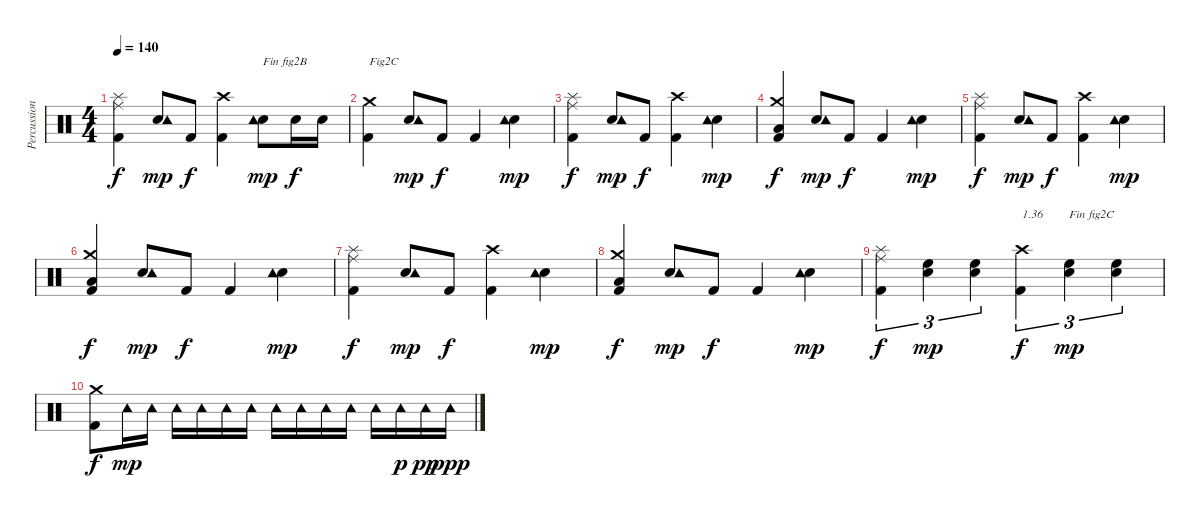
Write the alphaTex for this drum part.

\track ("Percussions" "Percussion") {instrument percussion}
\staff {score}
\articulation defaults
\ts (4 4)
\tempo 140
\clef neutral
\ks c
("Kick (hit) 2" "Ride (middle)" "Splash (hit)").4{dy f} ("Electric Snare (hit)" "Tambourine (hit)").8{dy mp} "Kick (hit) 2".8{dy f} ("Kick (hit) 2" "Crash high (hit)").4 ("Electric Snare (hit)" "Tambourine (hit)").8{txt "Fin fig2B" dy mp} "Electric Snare (hit)".16{dy f} "Electric Snare (hit)".16 |
("Kick (hit) 2" "Crash medium (hit)").4{txt "Fig2C"} ("Electric Snare (hit)" "Tambourine (hit)").8{dy mp} "Kick (hit) 2".8{dy f} "Kick (hit) 2".4 ("Electric Snare (hit)" "Tambourine (hit)").4{dy mp} |
("Kick (hit) 2" "Ride (middle)" "Splash (hit)").4{dy f} ("Electric Snare (hit)" "Tambourine (hit)").8{dy mp} "Kick (hit) 2".8{dy f} ("Kick (hit) 2" "Crash high (hit)").4 ("Electric Snare (hit)" "Tambourine (hit)").4{dy mp} |
("Kick (hit) 2" "Low Tom (hit)" "Crash medium (hit)").4{dy f} ("Electric Snare (hit)" "Tambourine (hit)").8{dy mp} "Kick (hit) 2".8{dy f} "Kick (hit) 2".4 ("Electric Snare (hit)" "Tambourine (hit)").4{dy mp} |
("Kick (hit) 2" "Ride (middle)" "Splash (hit)").4{dy f} ("Electric Snare (hit)" "Tambourine (hit)").8{dy mp} "Kick (hit) 2".8{dy f} ("Kick (hit) 2" "Crash high (hit)").4 ("Electric Snare (hit)" "Tambourine (hit)").4{dy mp} |
("Kick (hit) 2" "Low Tom (hit)" "Crash medium (hit)").4{dy f} ("Electric Snare (hit)" "Tambourine (hit)").8{dy mp} "Kick (hit) 2".8{dy f} "Kick (hit) 2".4 ("Electric Snare (hit)" "Tambourine (hit)").4{dy mp} |
("Kick (hit) 2" "Ride (middle)" "Splash (hit)").4{dy f} ("Electric Snare (hit)" "Tambourine (hit)").8{dy mp} "Kick (hit) 2".8{dy f} ("Kick (hit) 2" "Crash high (hit)").4 ("Electric Snare (hit)" "Tambourine (hit)").4{dy mp} |
("Kick (hit) 2" "Low Tom (hit)" "Crash medium (hit)").4{dy f} ("Electric Snare (hit)" "Tambourine (hit)").8{dy mp} "Kick (hit) 2".8{dy f} "Kick (hit) 2".4 ("Electric Snare (hit)" "Tambourine (hit)").4{dy mp} |
("Kick (hit) 2" "Ride (middle)" "Splash (hit)").4{tu (3 2) dy f} ("Electric Snare (hit)" "High Floor Tom (hit)").4{tu (3 2) dy mp} ("Electric Snare (hit)" "High Floor Tom (hit)").4{tu (3 2)} ("Kick (hit) 2" "Crash high (hit)").4{tu (3 2) txt "1.36" dy f} ("Electric Snare (hit)" "High Floor Tom (hit)").4{tu (3 2) txt "Fin fig2C" dy mp} ("Electric Snare (hit)" "High Floor Tom (hit)").4{tu (3 2)} |
("Kick (hit) 2" "Crash medium (hit)").8{dy f} "Tambourine (hit)".16{dy mp} "Tambourine (hit)".16 "Tambourine (hit)".16 "Tambourine (hit)".16 "Tambourine (hit)".16 "Tambourine (hit)".16 "Tambourine (hit)".16 "Tambourine (hit)".16 "Tambourine (hit)".16 "Tambourine (hit)".16 "Tambourine (hit)".16 "Tambourine (hit)".16{dy p} "Tambourine (hit)".16{dy pp} "Tambourine (hit)".16{dy ppp}
